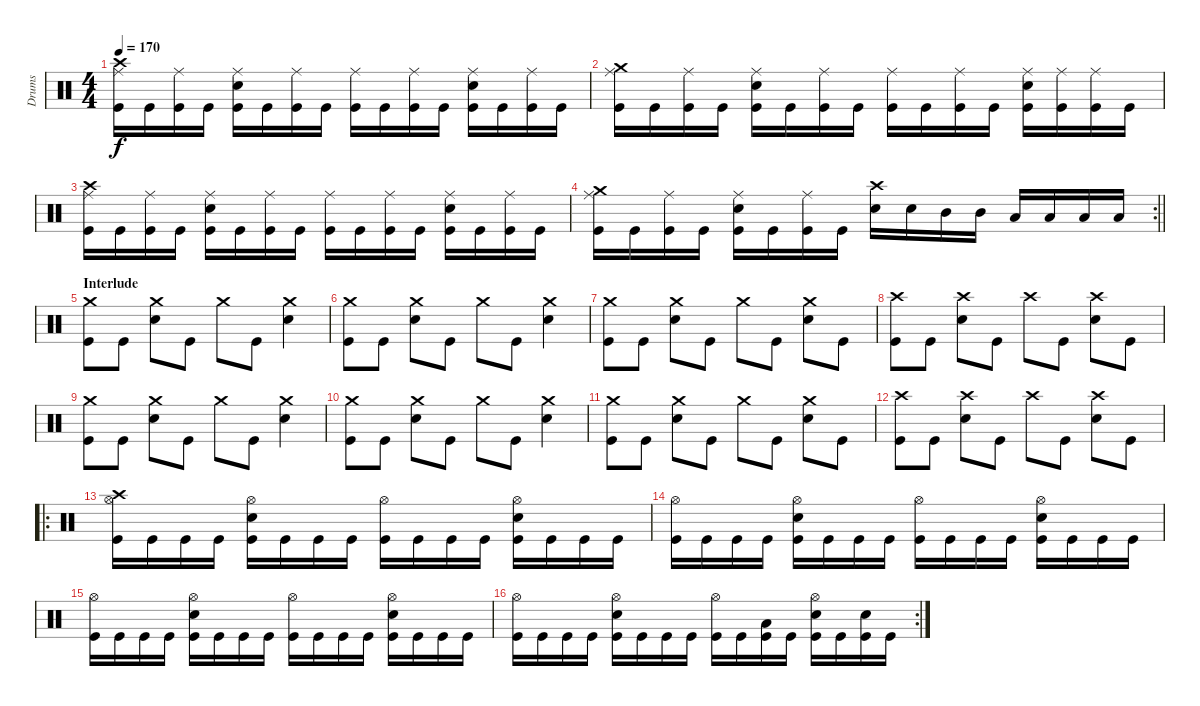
\track ("Drums" "Drums") {instrument percussion}
\staff {score}
\articulation defaults
\ts (4 4)
\tempo 170
\clef neutral
\ks c
("Ride (middle)" "Crash high (hit)" "Kick (hit)").16{dy f} "Kick (hit)".16 ("Ride (middle)" "Kick (hit)").16 "Kick (hit)".16 ("Ride (middle)" "Snare (hit) 2" "Kick (hit)").16 "Kick (hit)".16 ("Ride (middle)" "Kick (hit)").16 "Kick (hit)".16 ("Ride (middle)" "Kick (hit)").16 "Kick (hit)".16 ("Ride (middle)" "Kick (hit)").16 "Kick (hit)".16 ("Ride (middle)" "Snare (hit) 2" "Kick (hit)").16 "Kick (hit)".16 ("Ride (middle)" "Kick (hit)").16 "Kick (hit)".16 |
("Ride (middle)" "Crash medium (hit)" "Kick (hit)").16 "Kick (hit)".16 ("Ride (middle)" "Kick (hit)").16 "Kick (hit)".16 ("Ride (middle)" "Snare (hit) 2" "Kick (hit)").16 "Kick (hit)".16 ("Ride (middle)" "Kick (hit)").16 "Kick (hit)".16 ("Ride (middle)" "Kick (hit)").16 "Kick (hit)".16 ("Ride (middle)" "Kick (hit)").16 "Kick (hit)".16 ("Ride (middle)" "Snare (hit) 2" "Kick (hit)").16 ("Ride (middle)" "Kick (hit)").16 ("Ride (middle)" "Kick (hit)").16 "Kick (hit)".16 |
("Ride (middle)" "Crash high (hit)" "Kick (hit)").16 "Kick (hit)".16 ("Ride (middle)" "Kick (hit)").16 "Kick (hit)".16 ("Ride (middle)" "Snare (hit) 2" "Kick (hit)").16 "Kick (hit)".16 ("Ride (middle)" "Kick (hit)").16 "Kick (hit)".16 ("Ride (middle)" "Kick (hit)").16 "Kick (hit)".16 ("Ride (middle)" "Kick (hit)").16 "Kick (hit)".16 ("Ride (middle)" "Snare (hit) 2" "Kick (hit)").16 "Kick (hit)".16 ("Ride (middle)" "Kick (hit)").16 "Kick (hit)".16 |
\rc 2
\barLineRight lightlight
("Ride (middle)" "Crash medium (hit)" "Kick (hit)").16 "Kick (hit)".16 ("Ride (middle)" "Kick (hit)").16 "Kick (hit)".16 ("Ride (middle)" "Snare (hit) 2" "Kick (hit)").16 "Kick (hit)".16 ("Ride (middle)" "Kick (hit)").16 "Kick (hit)".16 ("Crash high (hit)" "Snare (hit) 2").16 "Snare (hit) 2".16 "Mid Tom (hit)".16 "Mid Tom (hit)".16 "Low Tom (hit)".16 "Low Tom (hit)".16 "Low Floor Tom (hit)".16 "Low Floor Tom (hit)".16 |
\section ("" "Interlude")
("Crash medium (hit)" "Kick (hit)").8 "Kick (hit)".8 ("Crash medium (hit)" "Snare (hit) 2").8 "Kick (hit)".8 "Crash medium (hit)".8 "Kick (hit)".8 ("Crash medium (hit)" "Snare (hit) 2").4 |
("Crash medium (hit)" "Kick (hit)").8 "Kick (hit)".8 ("Crash medium (hit)" "Snare (hit) 2").8 "Kick (hit)".8 "Crash medium (hit)".8 "Kick (hit)".8 ("Crash medium (hit)" "Snare (hit) 2").4 |
("Crash medium (hit)" "Kick (hit)").8 "Kick (hit)".8 ("Crash medium (hit)" "Snare (hit) 2").8 "Kick (hit)".8 "Crash medium (hit)".8 "Kick (hit)".8 ("Crash medium (hit)" "Snare (hit) 2").8 "Kick (hit)".8 |
("Crash high (hit)" "Kick (hit)").8 "Kick (hit)".8 ("Crash high (hit)" "Snare (hit) 2").8 "Kick (hit)".8 "Crash high (hit)".8 "Kick (hit)".8 ("Crash high (hit)" "Snare (hit) 2").8 "Kick (hit)".8 |
("Crash medium (hit)" "Kick (hit)").8 "Kick (hit)".8 ("Crash medium (hit)" "Snare (hit) 2").8 "Kick (hit)".8 "Crash medium (hit)".8 "Kick (hit)".8 ("Crash medium (hit)" "Snare (hit) 2").4 |
("Crash medium (hit)" "Kick (hit)").8 "Kick (hit)".8 ("Crash medium (hit)" "Snare (hit) 2").8 "Kick (hit)".8 "Crash medium (hit)".8 "Kick (hit)".8 ("Crash medium (hit)" "Snare (hit) 2").4 |
("Crash medium (hit)" "Kick (hit)").8 "Kick (hit)".8 ("Crash medium (hit)" "Snare (hit) 2").8 "Kick (hit)".8 "Crash medium (hit)".8 "Kick (hit)".8 ("Crash medium (hit)" "Snare (hit) 2").8 "Kick (hit)".8 |
("Crash high (hit)" "Kick (hit)").8 "Kick (hit)".8 ("Crash high (hit)" "Snare (hit) 2").8 "Kick (hit)".8 "Crash high (hit)".8 "Kick (hit)".8 ("Crash high (hit)" "Snare (hit) 2").8 "Kick (hit)".8 |
\ro
("Hi-Hat (open)" "Crash high (hit)" "Kick (hit)").16 "Kick (hit)".16 "Kick (hit)".16 "Kick (hit)".16 ("Hi-Hat (open)" "Snare (hit) 2" "Kick (hit)").16 "Kick (hit)".16 "Kick (hit)".16 "Kick (hit)".16 ("Hi-Hat (open)" "Kick (hit)").16 "Kick (hit)".16 "Kick (hit)".16 "Kick (hit)".16 ("Hi-Hat (open)" "Snare (hit) 2" "Kick (hit)").16 "Kick (hit)".16 "Kick (hit)".16 "Kick (hit)".16 |
("Hi-Hat (open)" "Kick (hit)").16 "Kick (hit)".16 "Kick (hit)".16 "Kick (hit)".16 ("Hi-Hat (open)" "Snare (hit) 2" "Kick (hit)").16 "Kick (hit)".16 "Kick (hit)".16 "Kick (hit)".16 ("Hi-Hat (open)" "Kick (hit)").16 "Kick (hit)".16 "Kick (hit)".16 "Kick (hit)".16 ("Hi-Hat (open)" "Snare (hit) 2" "Kick (hit)").16 "Kick (hit)".16 "Kick (hit)".16 "Kick (hit)".16 |
("Hi-Hat (open)" "Kick (hit)").16 "Kick (hit)".16 "Kick (hit)".16 "Kick (hit)".16 ("Hi-Hat (open)" "Snare (hit) 2" "Kick (hit)").16 "Kick (hit)".16 "Kick (hit)".16 "Kick (hit)".16 ("Hi-Hat (open)" "Kick (hit)").16 "Kick (hit)".16 "Kick (hit)".16 "Kick (hit)".16 ("Hi-Hat (open)" "Snare (hit) 2" "Kick (hit)").16 "Kick (hit)".16 "Kick (hit)".16 "Kick (hit)".16 |
\rc 2
("Hi-Hat (open)" "Kick (hit)").16 "Kick (hit)".16 "Kick (hit)".16 "Kick (hit)".16 ("Hi-Hat (open)" "Snare (hit) 2" "Kick (hit)").16 "Kick (hit)".16 "Kick (hit)".16 "Kick (hit)".16 ("Hi-Hat (open)" "Kick (hit)").16 "Kick (hit)".16 ("Low Floor Tom (hit)" "Kick (hit)").16 "Kick (hit)".16 ("Hi-Hat (open)" "Snare (hit) 2" "Kick (hit)").16 "Kick (hit)".16 ("Snare (hit) 2" "Kick (hit)").16 "Kick (hit)".16
